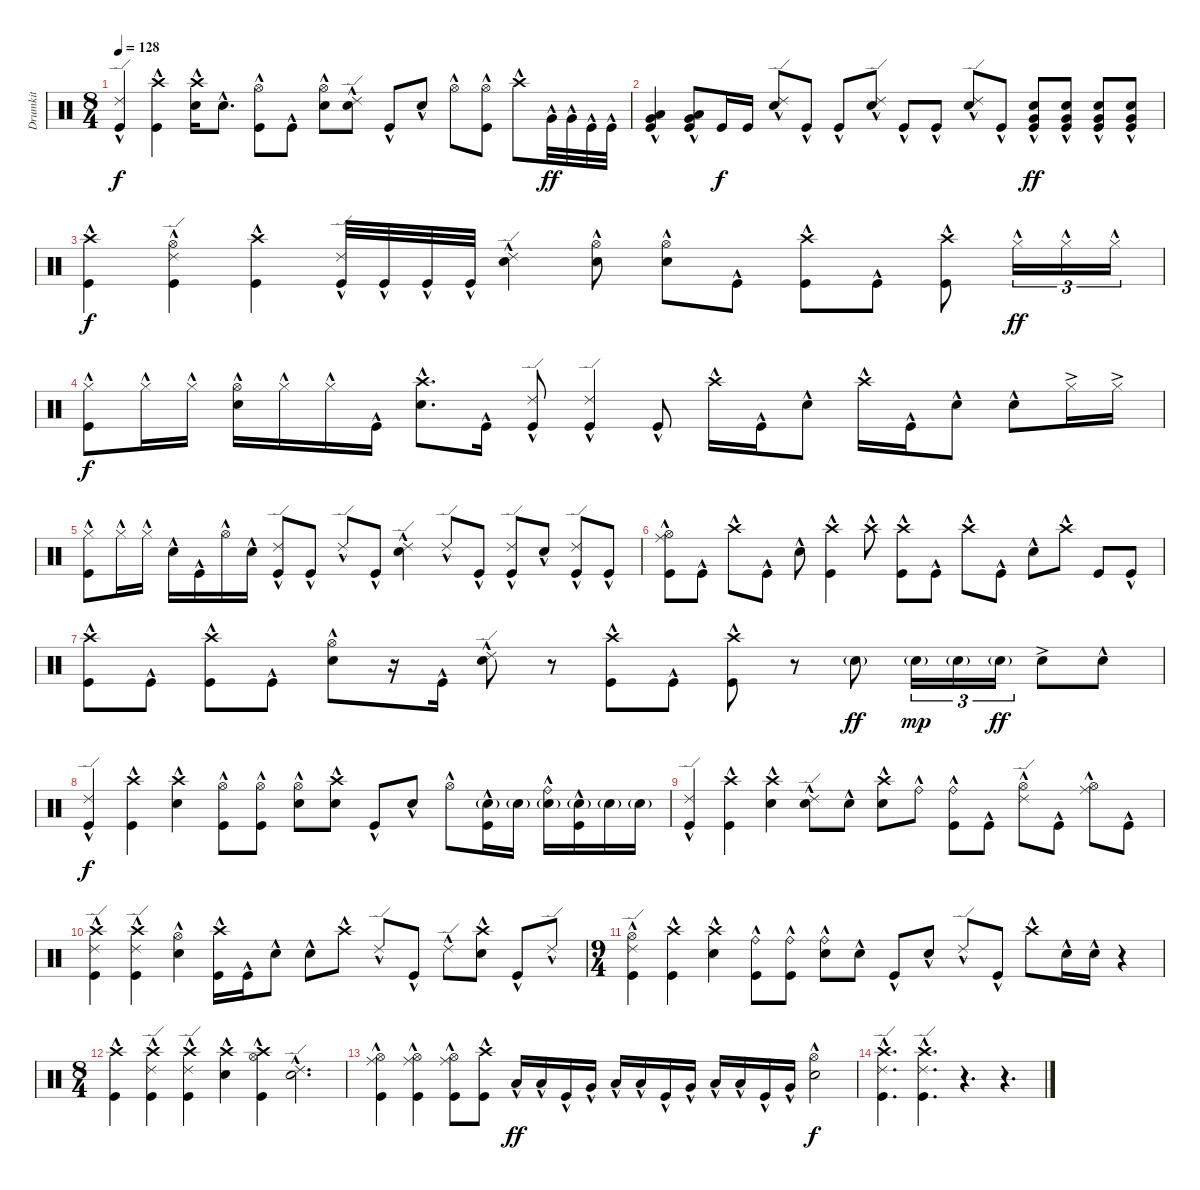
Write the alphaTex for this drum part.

\track ("Drumkit" "Drumkit") {instrument percussion}
\staff {score}
\articulation defaults
\ts (8 4)
\tempo 128
\clef neutral
\ks c
("Kick (hit)"{hac} "Ride (edge) 2"{hac}).4{dy f} ("Kick (hit)"{hac} "Crash high (hit)"{hac}).4 ("Crash high (hit)"{hac} "Snare (hit) 2"{hac}).16 "Snare (hit) 2"{hac}.8{d} ("Kick (hit)"{hac} "Hi-Hat (open)"{hac}).8 "Kick (hit)"{hac}.8 ("Snare (hit) 2"{hac} "Hi-Hat (open)").8 ("Snare (hit) 2"{hac} "Ride (edge) 2"{hac}).8 "Kick (hit)"{hac}.8 "Snare (hit) 2"{hac}.8 "Hi-Hat (open)"{hac}.8 ("Kick (hit)"{hac} "Hi-Hat (open)"{hac}).8 "Crash high (hit)"{hac}.8 "Very Low Tom (hit)"{hac}.32{dy ff} "Very Low Tom (hit)"{hac}.32 "Kick (hit)"{hac}.32 "Kick (hit)"{hac}.32 |
("Kick (hit)"{hac} "Low Tom (hit)"{hac} "Very Low Tom (hit)"{hac}).4 ("Very Low Tom (hit)"{hac} "Low Tom (hit)"{hac} "Kick (hit)"{hac}).8 "Kick (hit)".16{dy f} "Kick (hit)".16 ("Snare (hit) 2"{hac} "Ride (edge) 2"{hac}).8 "Kick (hit)"{hac}.8 "Kick (hit)"{hac}.8 ("Snare (hit) 2"{hac} "Ride (edge) 2"{hac}).8 "Kick (hit)"{hac}.8 "Kick (hit)"{hac}.8 ("Snare (hit) 2"{hac} "Ride (edge) 2"{hac}).8 "Kick (hit)"{hac}.8 ("Snare (hit) 2"{hac} "Kick (hit)"{hac} "Very Low Tom (hit)"{hac}).8{dy ff} ("Snare (hit) 2"{hac} "Kick (hit)"{hac} "Very Low Tom (hit)"{hac}).8 ("Snare (hit) 2"{hac} "Kick (hit)"{hac} "Very Low Tom (hit)"{hac}).8 ("Snare (hit) 2"{hac} "Kick (hit)"{hac} "Very Low Tom (hit)"{hac}).8 |
("Kick (hit)"{hac} "Crash high (hit)"{hac}).4{dy f} ("Kick (hit)"{hac} "Ride (edge) 2"{hac} "Hi-Hat (open)"{hac}).4 ("Kick (hit)"{hac} "Crash high (hit)"{hac}).4 ("Kick (hit)"{hac} "Ride (edge) 2"{hac}).32 "Kick (hit)"{hac}.32 "Kick (hit)"{hac}.32 "Kick (hit)"{hac}.32 ("Snare (hit) 2"{hac} "Ride (edge) 2"{hac}).4 ("Snare (hit) 2"{hac} "Hi-Hat (open)"{hac}).8 ("Snare (hit) 2"{hac} "Hi-Hat (open)"{hac}).8 "Kick (hit)"{hac}.8 ("Kick (hit)"{hac} "Crash high (hit)"{hac}).8 "Kick (hit)"{hac}.8 ("Kick (hit)"{hac} "Crash high (hit)"{hac}).8 "Hi-Hat (closed)"{hac}.16{tu (3 2) dy ff} "Hi-Hat (closed)"{hac}.16{tu (3 2)} "Hi-Hat (closed)"{hac}.16{tu (3 2)} |
("Hi-Hat (closed)"{hac} "Kick (hit)"{hac}).8{dy f} "Hi-Hat (closed)"{hac}.16 "Hi-Hat (closed)"{hac}.16 ("Snare (hit) 2"{hac} "Hi-Hat (open)"{hac}).16 "Hi-Hat (closed)"{hac}.16 "Hi-Hat (closed)"{hac}.16 "Kick (hit)"{hac}.16 ("Snare (hit) 2"{hac} "Crash high (hit)"{hac}).8{d} "Kick (hit)"{hac}.16 ("Kick (hit)"{hac} "Ride (edge) 2"{hac}).8 ("Kick (hit)"{hac} "Ride (edge) 2"{hac}).4 "Kick (hit)"{hac}.8 "Crash high (hit)"{hac}.16 "Kick (hit)"{hac}.16 "Snare (hit) 2"{hac}.8 "Crash high (hit)"{hac}.16 "Kick (hit)"{hac}.16 "Snare (hit) 2"{hac}.8 "Snare (hit) 2"{hac}.8 "Hi-Hat (closed)"{ac}.16 "Hi-Hat (closed)"{ac}.16 |
("Hi-Hat (closed)"{hac} "Kick (hit)"{hac}).8 "Hi-Hat (closed)"{hac}.16 "Hi-Hat (closed)"{hac}.16 "Snare (hit) 2"{hac}.16 "Kick (hit)"{hac}.16 "Hi-Hat (open)"{hac}.16 "Snare (hit) 2"{hac}.16 ("Kick (hit)"{hac} "Ride (edge) 2"{hac}).8 "Kick (hit)"{hac}.8 "Ride (edge) 2"{hac}.8 "Kick (hit)"{hac}.8 ("Snare (hit) 2"{hac} "Ride (edge) 2"{hac}).4 "Ride (edge) 2"{hac}.8 "Kick (hit)"{hac}.8 ("Kick (hit)"{hac} "Ride (edge) 2"{hac}).8 "Snare (hit) 2"{hac}.8 ("Kick (hit)"{hac} "Ride (edge) 2"{hac}).8 "Kick (hit)"{hac}.8 |
("Kick (hit)"{hac} "Ride (middle)"{hac} "Hi-Hat (open)"{hac}).8 "Kick (hit)"{hac}.8 "Crash high (hit)"{hac}.8 "Kick (hit)"{hac}.8 "Snare (hit) 2"{hac}.8 ("Crash high (hit)"{hac} "Kick (hit)"{hac}).4 "Crash high (hit)"{hac}.8 ("Kick (hit)"{hac} "Crash high (hit)"{hac}).8 "Kick (hit)"{hac}.8 "Crash high (hit)"{hac}.8 "Kick (hit)"{hac}.8 "Snare (hit) 2"{hac}.8 "Crash high (hit)"{hac}.8 "Kick (hit)".8 "Kick (hit)"{hac}.8 |
("Kick (hit)"{hac} "Crash high (hit)"{hac}).8 "Kick (hit)"{hac}.8 ("Kick (hit)"{hac} "Crash high (hit)"{hac}).8 "Kick (hit)"{hac}.8 ("Snare (hit) 2"{hac} "Hi-Hat (open)"{hac}).8 r.16 "Kick (hit)"{hac}.16 ("Snare (hit) 2"{hac} "Ride (edge) 2"{hac}).8 r.8 ("Kick (hit)"{hac} "Crash high (hit)"{hac}).8 "Kick (hit)"{hac}.8 ("Kick (hit)"{hac} "Crash high (hit)"{hac}).8 r.8 "Snare (hit) 2"{g}.8{dy ff} "Snare (hit) 2"{g}.16{tu (3 2) dy mp} "Snare (hit) 2"{g}.16{tu (3 2)} "Snare (hit) 2"{g}.16{tu (3 2) dy ff} "Snare (hit) 2"{ac}.8 "Snare (hit) 2"{hac}.8 |
("Kick (hit)"{hac} "Ride (edge) 2"{hac}).4{dy f} ("Kick (hit)"{hac} "Crash high (hit)"{hac}).4 ("Crash high (hit)"{hac} "Snare (hit) 2"{hac}).4 ("Kick (hit)"{hac} "Hi-Hat (open)"{hac}).8 ("Kick (hit)"{hac} "Hi-Hat (open)"{hac}).8 ("Snare (hit) 2"{hac} "Hi-Hat (open)"{hac}).8 ("Snare (hit) 2"{hac} "Crash high (hit)"{hac}).8 "Kick (hit)"{hac}.8 "Snare (hit) 2"{hac}.8 "Hi-Hat (open)"{hac}.8 ("Snare (hit) 2"{g} "Kick (hit)"{hac}).16 "Snare (hit) 2"{g}.16 ("Snare (hit) 2"{g} "Ride (bell)"{hac}).16 ("Snare (hit) 2"{g} "Kick (hit)"{hac}).16 "Snare (hit) 2"{g}.16 "Snare (hit) 2"{g}.16 |
("Kick (hit)"{hac} "Ride (edge) 2"{hac}).4 ("Kick (hit)"{hac} "Crash high (hit)"{hac}).4 ("Crash high (hit)"{hac} "Snare (hit) 2"{hac}).4 ("Snare (hit) 2"{hac} "Ride (edge) 2"{hac}).8 "Snare (hit) 2"{hac}.8 ("Snare (hit) 2"{hac} "Crash high (hit)"{hac}).8 "Ride (bell)"{hac}.8 ("Kick (hit)"{hac} "Ride (bell)"{hac}).8 "Kick (hit)"{hac}.8 ("Ride (edge) 2"{hac} "Hi-Hat (open)"{hac}).8 "Kick (hit)"{hac}.8 ("Hi-Hat (open)"{hac} "Ride (middle)"{hac}).8 "Kick (hit)"{hac}.8 |
("Kick (hit)"{hac} "Crash high (hit)"{hac} "Ride (edge) 2"{hac}).4 ("Kick (hit)"{hac} "Crash high (hit)"{hac} "Ride (edge) 2"{hac}).4 ("Snare (hit) 2"{hac} "Hi-Hat (open)"{hac}).4 ("Kick (hit)"{hac} "Crash high (hit)"{hac}).16 "Kick (hit)"{hac}.16 "Snare (hit) 2"{hac}.8 "Snare (hit) 2"{hac}.8 "Crash high (hit)"{hac}.8 "Ride (edge) 2"{hac}.8 "Kick (hit)"{hac}.8 "Ride (edge) 2"{hac}.8 ("Snare (hit) 2"{hac} "Crash high (hit)"{hac}).8 "Kick (hit)"{hac}.8 "Ride (edge) 2"{hac}.8 |
\ts (9 4)
("Kick (hit)"{hac} "Ride (edge) 2"{hac} "Hi-Hat (open)"{hac}).4 ("Kick (hit)"{hac} "Crash high (hit)"{hac}).4 ("Crash high (hit)"{hac} "Snare (hit) 2"{hac}).4 ("Kick (hit)"{hac} "Ride (bell)"{hac}).8 ("Kick (hit)"{hac} "Ride (bell)"{hac}).8 ("Snare (hit) 2"{hac} "Ride (bell)"{hac}).8 "Snare (hit) 2"{hac}.8 "Kick (hit)"{hac}.8 "Snare (hit) 2"{hac}.8 "Ride (edge) 2"{hac}.8 "Kick (hit)"{hac}.8 "Crash high (hit)"{hac}.8 "Snare (hit) 2"{hac}.16 "Snare (hit) 2"{hac}.16 r.4 |
\ts (8 4)
("Kick (hit)"{hac} "Crash high (hit)"{hac}).4 ("Kick (hit)"{hac} "Crash high (hit)"{hac} "Ride (edge) 2"{hac}).4 ("Kick (hit)"{hac} "Crash high (hit)"{hac} "Ride (edge) 2"{hac}).4 ("Snare (hit) 2"{hac} "Crash high (hit)"{hac}).4 ("Kick (hit)"{hac} "Hi-Hat (open)"{hac} "Crash high (hit)"{hac}).4 ("Snare (hit) 2"{hac} "Ride (edge) 2"{hac}).2{d} |
("Kick (hit)"{hac} "Ride (middle)"{hac} "Hi-Hat (open)"{hac}).4 ("Kick (hit)"{hac} "Ride (middle)"{hac} "Hi-Hat (open)"{hac}).4 ("Kick (hit)"{hac} "Ride (middle)"{hac} "Hi-Hat (open)"{hac}).8 ("Kick (hit)"{hac} "Crash high (hit)"{hac}).8 "Low Tom (hit)"{hac}.16{dy ff} "Low Tom (hit)"{hac}.16 "Kick (hit)"{hac}.16 "Very Low Tom (hit)"{hac}.16 "Low Tom (hit)"{hac}.16 "Low Tom (hit)"{hac}.16 "Kick (hit)"{hac}.16 "Very Low Tom (hit)"{hac}.16 "Low Tom (hit)"{hac}.16 "Low Tom (hit)"{hac}.16 "Kick (hit)"{hac}.16 "Very Low Tom (hit)"{hac}.16 ("Snare (hit) 2"{hac} "Hi-Hat (open)"{hac}).2{dy f} |
("Kick (hit)"{hac} "Ride (edge) 2"{hac} "Crash high (hit)"{hac}).4{d} ("Kick (hit)"{hac} "Ride (edge) 2"{hac} "Crash high (hit)"{hac}).4{d} r.4{d} r.4{d}
